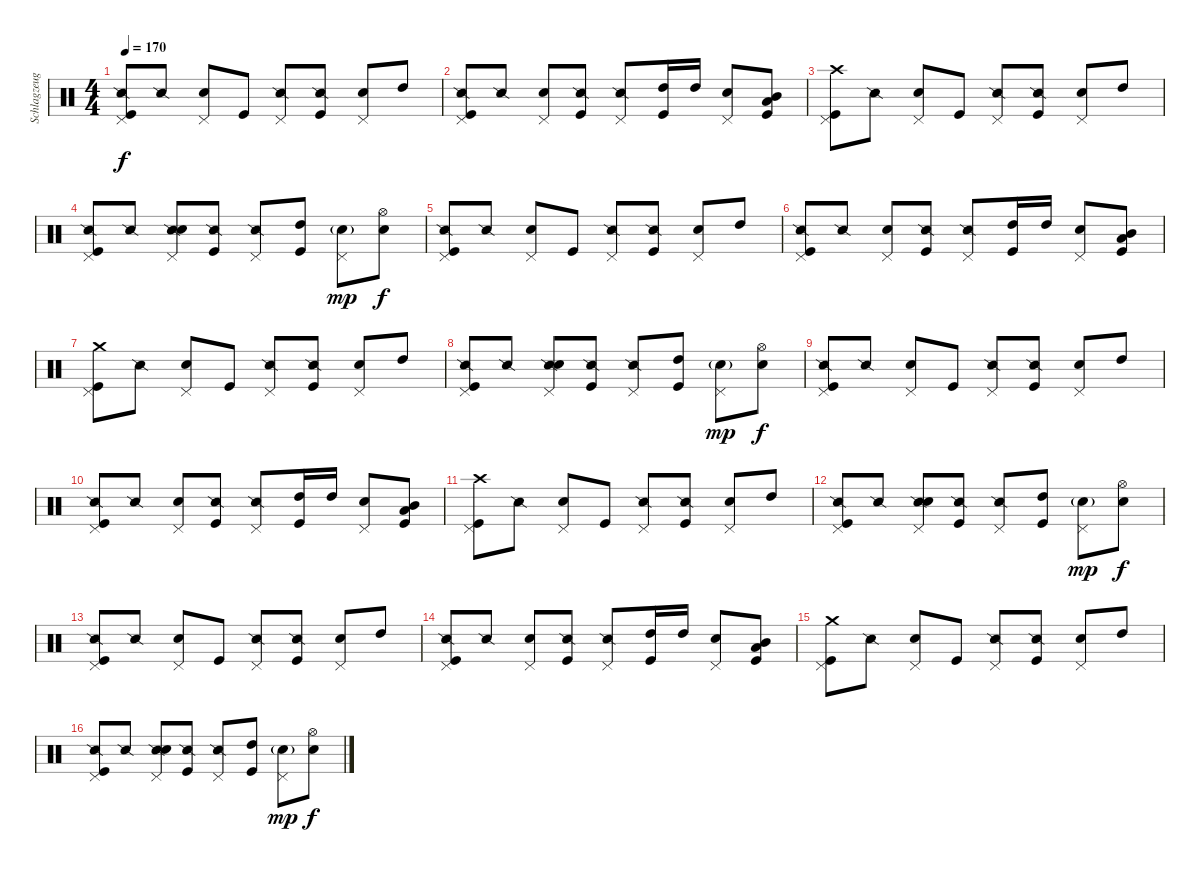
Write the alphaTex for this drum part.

\track ("Schlagzeug" "Schlagzeug") {instrument percussion}
\staff {score}
\articulation defaults
\ts (4 4)
\tempo 170
\clef neutral
\ks c
("Snare (side stick) 2" "Pedal Hi-Hat (hit)" "Kick (hit)").8{dy f} "Snare (side stick) 2".8 ("Electric Snare (hit)" "Pedal Hi-Hat (hit)").8 "Kick (hit)".8 ("Snare (side stick) 2" "Pedal Hi-Hat (hit)").8 ("Snare (side stick) 2" "Kick (hit)").8 ("Electric Snare (hit)" "Pedal Hi-Hat (hit)").8 "High Tom (hit)".8 |
("Snare (side stick) 2" "Pedal Hi-Hat (hit)" "Kick (hit)").8 "Snare (side stick) 2".8 ("Electric Snare (hit)" "Pedal Hi-Hat (hit)").8 ("Snare (side stick) 2" "Kick (hit)").8 ("Snare (side stick) 2" "Pedal Hi-Hat (hit)").8 ("High Tom (hit)" "Kick (hit)").16 "High Tom (hit)".16 ("Electric Snare (hit)" "Pedal Hi-Hat (hit)").8 ("Mid Tom (hit)" "Low Tom (hit)" "Kick (hit)").8 |
("Crash high (hit)" "Pedal Hi-Hat (hit)" "Kick (hit)").8 "Snare (side stick) 2".8 ("Electric Snare (hit)" "Pedal Hi-Hat (hit)").8 "Kick (hit)".8 ("Snare (side stick) 2" "Pedal Hi-Hat (hit)").8 ("Snare (side stick) 2" "Kick (hit)").8 ("Electric Snare (hit)" "Pedal Hi-Hat (hit)").8 "High Tom (hit)".8 |
("Snare (side stick) 2" "Pedal Hi-Hat (hit)" "Kick (hit)").8 "Snare (side stick) 2".8 ("Snare (side stick) 2" "Electric Snare (hit)" "Pedal Hi-Hat (hit)").8 ("Snare (side stick) 2" "Kick (hit)").8 ("Snare (side stick) 2" "Pedal Hi-Hat (hit)").8 ("High Tom (hit)" "Kick (hit)").8 ("Electric Snare (hit)"{g} "Pedal Hi-Hat (hit)").8{dy mp} ("Hi-Hat (open)" "Electric Snare (hit)").8{dy f} |
("Snare (side stick) 2" "Pedal Hi-Hat (hit)" "Kick (hit)").8 "Snare (side stick) 2".8 ("Electric Snare (hit)" "Pedal Hi-Hat (hit)").8 "Kick (hit)".8 ("Snare (side stick) 2" "Pedal Hi-Hat (hit)").8 ("Snare (side stick) 2" "Kick (hit)").8 ("Electric Snare (hit)" "Pedal Hi-Hat (hit)").8 "High Tom (hit)".8 |
("Snare (side stick) 2" "Pedal Hi-Hat (hit)" "Kick (hit)").8 "Snare (side stick) 2".8 ("Electric Snare (hit)" "Pedal Hi-Hat (hit)").8 ("Snare (side stick) 2" "Kick (hit)").8 ("Snare (side stick) 2" "Pedal Hi-Hat (hit)").8 ("High Tom (hit)" "Kick (hit)").16 "High Tom (hit)".16 ("Electric Snare (hit)" "Pedal Hi-Hat (hit)").8 ("Mid Tom (hit)" "Low Tom (hit)" "Kick (hit)").8 |
("Crash medium (hit)" "Pedal Hi-Hat (hit)" "Kick (hit)").8 "Snare (side stick) 2".8 ("Electric Snare (hit)" "Pedal Hi-Hat (hit)").8 "Kick (hit)".8 ("Snare (side stick) 2" "Pedal Hi-Hat (hit)").8 ("Snare (side stick) 2" "Kick (hit)").8 ("Electric Snare (hit)" "Pedal Hi-Hat (hit)").8 "High Tom (hit)".8 |
("Snare (side stick) 2" "Pedal Hi-Hat (hit)" "Kick (hit)").8 "Snare (side stick) 2".8 ("Snare (side stick) 2" "Electric Snare (hit)" "Pedal Hi-Hat (hit)").8 ("Snare (side stick) 2" "Kick (hit)").8 ("Snare (side stick) 2" "Pedal Hi-Hat (hit)").8 ("High Tom (hit)" "Kick (hit)").8 ("Electric Snare (hit)"{g} "Pedal Hi-Hat (hit)").8{dy mp} ("Hi-Hat (open)" "Electric Snare (hit)").8{dy f} |
("Snare (side stick) 2" "Pedal Hi-Hat (hit)" "Kick (hit)").8 "Snare (side stick) 2".8 ("Electric Snare (hit)" "Pedal Hi-Hat (hit)").8 "Kick (hit)".8 ("Snare (side stick) 2" "Pedal Hi-Hat (hit)").8 ("Snare (side stick) 2" "Kick (hit)").8 ("Electric Snare (hit)" "Pedal Hi-Hat (hit)").8 "High Tom (hit)".8 |
("Snare (side stick) 2" "Pedal Hi-Hat (hit)" "Kick (hit)").8 "Snare (side stick) 2".8 ("Electric Snare (hit)" "Pedal Hi-Hat (hit)").8 ("Snare (side stick) 2" "Kick (hit)").8 ("Snare (side stick) 2" "Pedal Hi-Hat (hit)").8 ("High Tom (hit)" "Kick (hit)").16 "High Tom (hit)".16 ("Electric Snare (hit)" "Pedal Hi-Hat (hit)").8 ("Mid Tom (hit)" "Low Tom (hit)" "Kick (hit)").8 |
("Crash high (hit)" "Pedal Hi-Hat (hit)" "Kick (hit)").8 "Snare (side stick) 2".8 ("Electric Snare (hit)" "Pedal Hi-Hat (hit)").8 "Kick (hit)".8 ("Snare (side stick) 2" "Pedal Hi-Hat (hit)").8 ("Snare (side stick) 2" "Kick (hit)").8 ("Electric Snare (hit)" "Pedal Hi-Hat (hit)").8 "High Tom (hit)".8 |
("Snare (side stick) 2" "Pedal Hi-Hat (hit)" "Kick (hit)").8 "Snare (side stick) 2".8 ("Snare (side stick) 2" "Electric Snare (hit)" "Pedal Hi-Hat (hit)").8 ("Snare (side stick) 2" "Kick (hit)").8 ("Snare (side stick) 2" "Pedal Hi-Hat (hit)").8 ("High Tom (hit)" "Kick (hit)").8 ("Electric Snare (hit)"{g} "Pedal Hi-Hat (hit)").8{dy mp} ("Hi-Hat (open)" "Electric Snare (hit)").8{dy f} |
("Snare (side stick) 2" "Pedal Hi-Hat (hit)" "Kick (hit)").8 "Snare (side stick) 2".8 ("Electric Snare (hit)" "Pedal Hi-Hat (hit)").8 "Kick (hit)".8 ("Snare (side stick) 2" "Pedal Hi-Hat (hit)").8 ("Snare (side stick) 2" "Kick (hit)").8 ("Electric Snare (hit)" "Pedal Hi-Hat (hit)").8 "High Tom (hit)".8 |
("Snare (side stick) 2" "Pedal Hi-Hat (hit)" "Kick (hit)").8 "Snare (side stick) 2".8 ("Electric Snare (hit)" "Pedal Hi-Hat (hit)").8 ("Snare (side stick) 2" "Kick (hit)").8 ("Snare (side stick) 2" "Pedal Hi-Hat (hit)").8 ("High Tom (hit)" "Kick (hit)").16 "High Tom (hit)".16 ("Electric Snare (hit)" "Pedal Hi-Hat (hit)").8 ("Mid Tom (hit)" "Low Tom (hit)" "Kick (hit)").8 |
("Crash medium (hit)" "Pedal Hi-Hat (hit)" "Kick (hit)").8 "Snare (side stick) 2".8 ("Electric Snare (hit)" "Pedal Hi-Hat (hit)").8 "Kick (hit)".8 ("Snare (side stick) 2" "Pedal Hi-Hat (hit)").8 ("Snare (side stick) 2" "Kick (hit)").8 ("Electric Snare (hit)" "Pedal Hi-Hat (hit)").8 "High Tom (hit)".8 |
("Snare (side stick) 2" "Pedal Hi-Hat (hit)" "Kick (hit)").8 "Snare (side stick) 2".8 ("Snare (side stick) 2" "Electric Snare (hit)" "Pedal Hi-Hat (hit)").8 ("Snare (side stick) 2" "Kick (hit)").8 ("Snare (side stick) 2" "Pedal Hi-Hat (hit)").8 ("High Tom (hit)" "Kick (hit)").8 ("Electric Snare (hit)"{g} "Pedal Hi-Hat (hit)").8{dy mp} ("Hi-Hat (open)" "Electric Snare (hit)").8{dy f}
